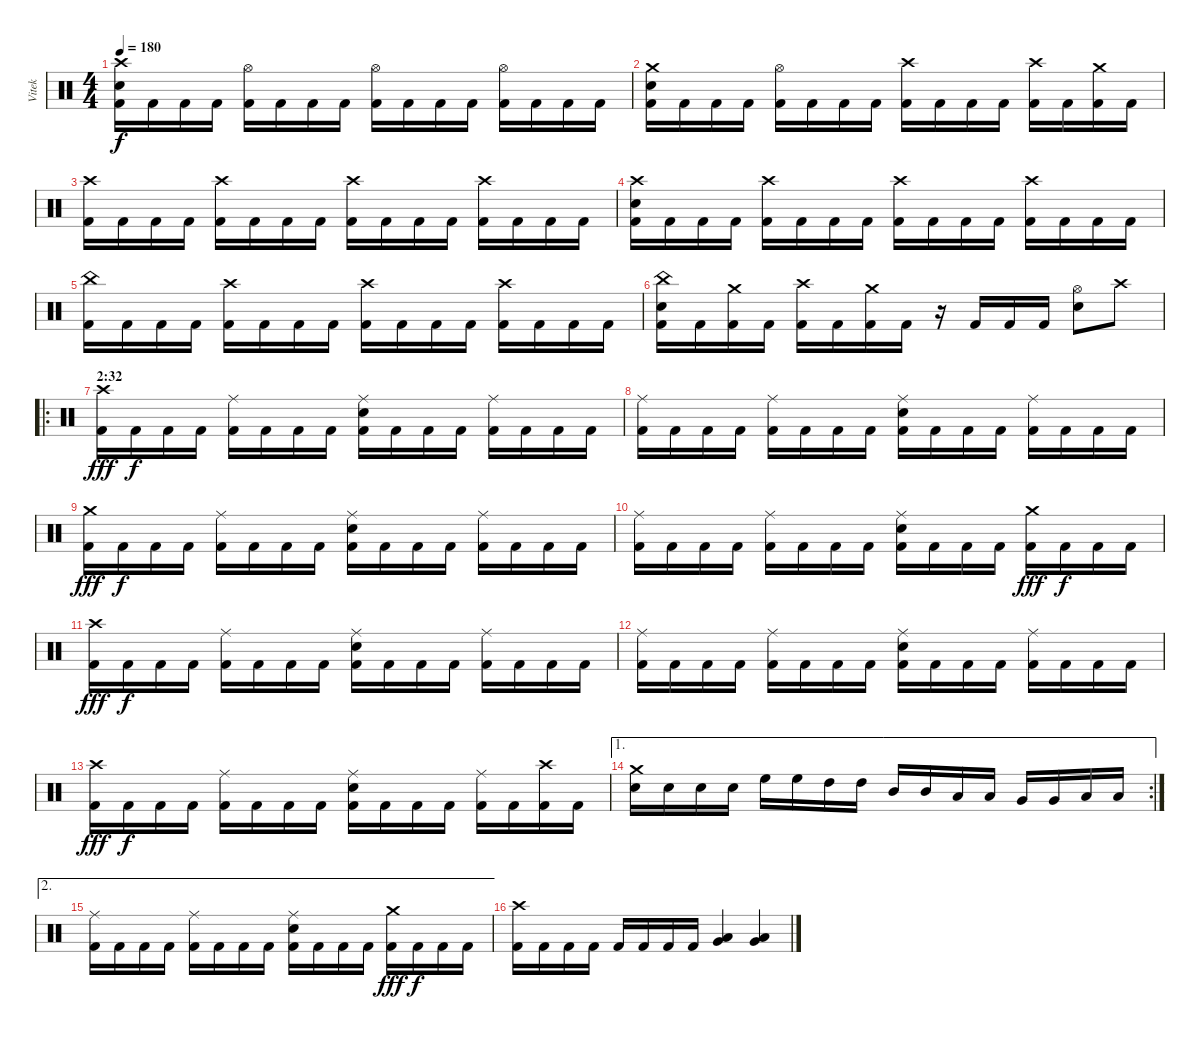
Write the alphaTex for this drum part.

\track ("Vitek" "Vitek") {instrument percussion}
\staff {score}
\articulation defaults
\ts (4 4)
\tempo 180
\clef neutral
\ks c
("Crash high (hit)" "Electric Snare (hit)" "Kick (hit) 2").16{dy f} "Kick (hit) 2".16 "Kick (hit) 2".16 "Kick (hit) 2".16 ("Hi-Hat (open)" "Kick (hit) 2").16 "Kick (hit) 2".16 "Kick (hit) 2".16 "Kick (hit) 2".16 ("Hi-Hat (open)" "Kick (hit) 2").16 "Kick (hit) 2".16 "Kick (hit) 2".16 "Kick (hit) 2".16 ("Hi-Hat (open)" "Kick (hit) 2").16 "Kick (hit) 2".16 "Kick (hit) 2".16 "Kick (hit) 2".16 |
("Crash medium (hit)" "Electric Snare (hit)" "Kick (hit) 2").16 "Kick (hit) 2".16 "Kick (hit) 2".16 "Kick (hit) 2".16 ("Hi-Hat (open)" "Kick (hit) 2").16 "Kick (hit) 2".16 "Kick (hit) 2".16 "Kick (hit) 2".16 ("Crash high (hit)" "Kick (hit) 2").16 "Kick (hit) 2".16 "Kick (hit) 2".16 "Kick (hit) 2".16 ("Crash high (hit)" "Kick (hit) 2").16 "Kick (hit) 2".16 ("Crash medium (hit)" "Kick (hit) 2").16 "Kick (hit) 2".16 |
("Crash high (hit)" "Kick (hit) 2").16 "Kick (hit) 2".16 "Kick (hit) 2".16 "Kick (hit) 2".16 ("Crash high (hit)" "Kick (hit) 2").16 "Kick (hit) 2".16 "Kick (hit) 2".16 "Kick (hit) 2".16 ("Crash high (hit)" "Kick (hit) 2").16 "Kick (hit) 2".16 "Kick (hit) 2".16 "Kick (hit) 2".16 ("Crash high (hit)" "Kick (hit) 2").16 "Kick (hit) 2".16 "Kick (hit) 2".16 "Kick (hit) 2".16 |
("Crash high (hit)" "Electric Snare (hit)" "Kick (hit) 2").16 "Kick (hit) 2".16 "Kick (hit) 2".16 "Kick (hit) 2".16 ("Crash high (hit)" "Kick (hit) 2").16 "Kick (hit) 2".16 "Kick (hit) 2".16 "Kick (hit) 2".16 ("Crash high (hit)" "Kick (hit) 2").16 "Kick (hit) 2".16 "Kick (hit) 2".16 "Kick (hit) 2".16 ("Crash high (hit)" "Kick (hit) 2").16 "Kick (hit) 2".16 "Kick (hit) 2".16 "Kick (hit) 2".16 |
("China (hit)" "Kick (hit) 2").16 "Kick (hit) 2".16 "Kick (hit) 2".16 "Kick (hit) 2".16 ("Crash high (hit)" "Kick (hit) 2").16 "Kick (hit) 2".16 "Kick (hit) 2".16 "Kick (hit) 2".16 ("Crash high (hit)" "Kick (hit) 2").16 "Kick (hit) 2".16 "Kick (hit) 2".16 "Kick (hit) 2".16 ("Crash high (hit)" "Kick (hit) 2").16 "Kick (hit) 2".16 "Kick (hit) 2".16 "Kick (hit) 2".16 |
("China (hit)" "Electric Snare (hit)" "Kick (hit) 2").16 "Kick (hit) 2".16 ("Crash medium (hit)" "Kick (hit) 2").16 "Kick (hit) 2".16 ("Crash high (hit)" "Kick (hit) 2").16 "Kick (hit) 2".16 ("Crash medium (hit)" "Kick (hit) 2").16 "Kick (hit) 2".16 r.16 "Kick (hit) 2".16 "Kick (hit) 2".16 "Kick (hit) 2".16 ("Hi-Hat (open)" "Electric Snare (hit)").8 "Crash high (hit)".8 |
\ro
\section ("" "2:32")
("Crash high (hit)" "Kick (hit) 2").16{dy fff} "Kick (hit) 2".16{dy f} "Kick (hit) 2".16 "Kick (hit) 2".16 ("Ride (middle)" "Kick (hit) 2").16 "Kick (hit) 2".16 "Kick (hit) 2".16 "Kick (hit) 2".16 ("Ride (middle)" "Electric Snare (hit)" "Kick (hit) 2").16 "Kick (hit) 2".16 "Kick (hit) 2".16 "Kick (hit) 2".16 ("Ride (middle)" "Kick (hit) 2").16 "Kick (hit) 2".16 "Kick (hit) 2".16 "Kick (hit) 2".16 |
("Ride (middle)" "Kick (hit) 2").16 "Kick (hit) 2".16 "Kick (hit) 2".16 "Kick (hit) 2".16 ("Ride (middle)" "Kick (hit) 2").16 "Kick (hit) 2".16 "Kick (hit) 2".16 "Kick (hit) 2".16 ("Ride (middle)" "Electric Snare (hit)" "Kick (hit) 2").16 "Kick (hit) 2".16 "Kick (hit) 2".16 "Kick (hit) 2".16 ("Ride (middle)" "Kick (hit) 2").16 "Kick (hit) 2".16 "Kick (hit) 2".16 "Kick (hit) 2".16 |
("Crash medium (hit)" "Kick (hit) 2").16{dy fff} "Kick (hit) 2".16{dy f} "Kick (hit) 2".16 "Kick (hit) 2".16 ("Ride (middle)" "Kick (hit) 2").16 "Kick (hit) 2".16 "Kick (hit) 2".16 "Kick (hit) 2".16 ("Ride (middle)" "Electric Snare (hit)" "Kick (hit) 2").16 "Kick (hit) 2".16 "Kick (hit) 2".16 "Kick (hit) 2".16 ("Ride (middle)" "Kick (hit) 2").16 "Kick (hit) 2".16 "Kick (hit) 2".16 "Kick (hit) 2".16 |
("Ride (middle)" "Kick (hit) 2").16 "Kick (hit) 2".16 "Kick (hit) 2".16 "Kick (hit) 2".16 ("Ride (middle)" "Kick (hit) 2").16 "Kick (hit) 2".16 "Kick (hit) 2".16 "Kick (hit) 2".16 ("Ride (middle)" "Electric Snare (hit)" "Kick (hit) 2").16 "Kick (hit) 2".16 "Kick (hit) 2".16 "Kick (hit) 2".16 ("Crash medium (hit)" "Kick (hit) 2").16{dy fff} "Kick (hit) 2".16{dy f} "Kick (hit) 2".16 "Kick (hit) 2".16 |
("Crash high (hit)" "Kick (hit) 2").16{dy fff} "Kick (hit) 2".16{dy f} "Kick (hit) 2".16 "Kick (hit) 2".16 ("Ride (middle)" "Kick (hit) 2").16 "Kick (hit) 2".16 "Kick (hit) 2".16 "Kick (hit) 2".16 ("Ride (middle)" "Electric Snare (hit)" "Kick (hit) 2").16 "Kick (hit) 2".16 "Kick (hit) 2".16 "Kick (hit) 2".16 ("Ride (middle)" "Kick (hit) 2").16 "Kick (hit) 2".16 "Kick (hit) 2".16 "Kick (hit) 2".16 |
("Ride (middle)" "Kick (hit) 2").16 "Kick (hit) 2".16 "Kick (hit) 2".16 "Kick (hit) 2".16 ("Ride (middle)" "Kick (hit) 2").16 "Kick (hit) 2".16 "Kick (hit) 2".16 "Kick (hit) 2".16 ("Ride (middle)" "Electric Snare (hit)" "Kick (hit) 2").16 "Kick (hit) 2".16 "Kick (hit) 2".16 "Kick (hit) 2".16 ("Ride (middle)" "Kick (hit) 2").16 "Kick (hit) 2".16 "Kick (hit) 2".16 "Kick (hit) 2".16 |
("Crash high (hit)" "Kick (hit) 2").16{dy fff} "Kick (hit) 2".16{dy f} "Kick (hit) 2".16 "Kick (hit) 2".16 ("Ride (middle)" "Kick (hit) 2").16 "Kick (hit) 2".16 "Kick (hit) 2".16 "Kick (hit) 2".16 ("Ride (middle)" "Electric Snare (hit)" "Kick (hit) 2").16 "Kick (hit) 2".16 "Kick (hit) 2".16 "Kick (hit) 2".16 ("Ride (middle)" "Kick (hit) 2").16 "Kick (hit) 2".16 ("Crash high (hit)" "Kick (hit) 2").16 "Kick (hit) 2".16 |
\ae 1
\rc 2
("Crash medium (hit)" "Electric Snare (hit)").16 "Electric Snare (hit)".16 "Electric Snare (hit)".16 "Electric Snare (hit)".16 "High Floor Tom (hit)".16 "High Floor Tom (hit)".16 "High Tom (hit)".16 "High Tom (hit)".16 "Mid Tom (hit)".16 "Mid Tom (hit)".16 "Low Tom (hit)".16 "Low Tom (hit)".16 "Very Low Tom (hit)".16 "Very Low Tom (hit)".16 "Low Floor Tom (hit)".16 "Low Floor Tom (hit)".16 |
\ae 2
("Ride (middle)" "Kick (hit) 2").16 "Kick (hit) 2".16 "Kick (hit) 2".16 "Kick (hit) 2".16 ("Ride (middle)" "Kick (hit) 2").16 "Kick (hit) 2".16 "Kick (hit) 2".16 "Kick (hit) 2".16 ("Ride (middle)" "Electric Snare (hit)" "Kick (hit) 2").16 "Kick (hit) 2".16 "Kick (hit) 2".16 "Kick (hit) 2".16 ("Crash medium (hit)" "Kick (hit) 2").16{dy fff} "Kick (hit) 2".16{dy f} "Kick (hit) 2".16 "Kick (hit) 2".16 |
("Crash high (hit)" "Kick (hit) 2").16 "Kick (hit) 2".16 "Kick (hit) 2".16 "Kick (hit) 2".16 "Kick (hit) 2".16 "Kick (hit) 2".16 "Kick (hit) 2".16 "Kick (hit) 2".16 ("Low Tom (hit)" "Very Low Tom (hit)").4 ("Very Low Tom (hit)" "Low Floor Tom (hit)").4
